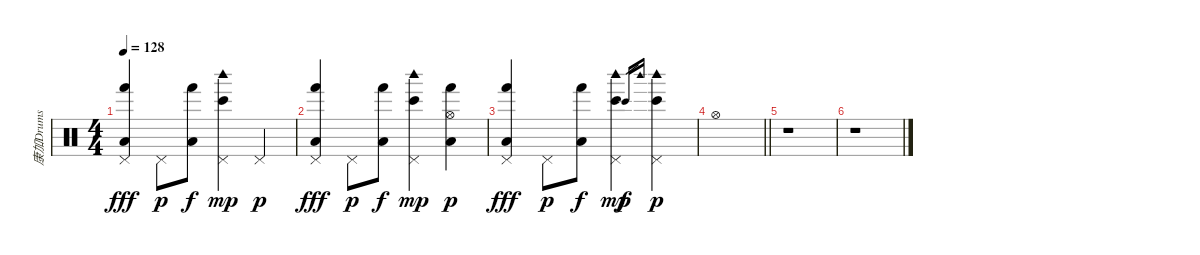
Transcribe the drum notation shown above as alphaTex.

\track ("康加Drums" "康加Drums") {instrument percussion}
\staff {score}
\articulation defaults
\ts (4 4)
\tempo 128
\clef neutral
\ks c
("Pedal Hi-Hat (hit)" "Hand (hit)" "Low Floor Tom (hit)").4{dy fff} "Pedal Hi-Hat (hit)".8{dy p} ("Hand (hit)" "Low Floor Tom (hit)").8{dy f} ("Bongo High (hit)" "Woodblock high (hit)" "Pedal Hi-Hat (hit)").4{dy mp} "Pedal Hi-Hat (hit)".4{dy p} |
("Pedal Hi-Hat (hit)" "Hand (hit)" "Low Floor Tom (hit)").4{dy fff} "Pedal Hi-Hat (hit)".8{dy p} ("Hand (hit)" "Low Floor Tom (hit)").8{dy f} ("Bongo High (hit)" "Woodblock high (hit)" "Pedal Hi-Hat (hit)").4{dy mp} ("Hi-Hat (open)" "Hand (hit)" "Low Floor Tom (hit)").4{dy p} |
("Pedal Hi-Hat (hit)" "Hand (hit)" "Low Floor Tom (hit)").4{dy fff} "Pedal Hi-Hat (hit)".8{dy p} ("Hand (hit)" "Low Floor Tom (hit)").8{dy f} ("Bongo High (hit)" "Woodblock high (hit)" "Pedal Hi-Hat (hit)").4{dy mp} "Bongo High (hit)".16{gr dy f} "Woodblock high (hit)".16{gr} ("Bongo High (hit)" "Woodblock high (hit)" "Pedal Hi-Hat (hit)").4{dy p} |
\barLineRight lightlight "Hi-Hat (open)".1
|
r.1 |
r.1
